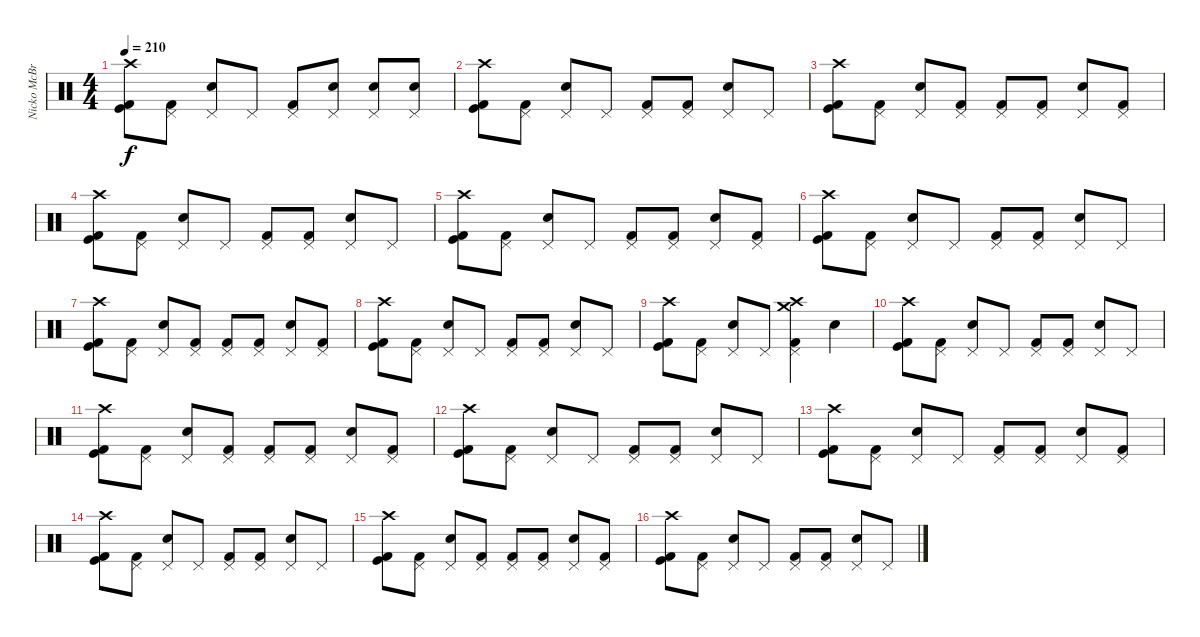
\track ("Nicko McBrain" "Nicko McBr") {instrument percussion}
\staff {score}
\articulation defaults
\ts (4 4)
\tempo 210
\clef neutral
\ks c
("Crash high (hit)" "Kick (hit)" "Kick (hit) 2").8{dy f} ("Pedal Hi-Hat (hit)" "Kick (hit) 2").8 ("Pedal Hi-Hat (hit)" "Snare (hit) 2").8 "Pedal Hi-Hat (hit)".8 ("Pedal Hi-Hat (hit)" "Kick (hit) 2").8 ("Pedal Hi-Hat (hit)" "Snare (hit) 2").8 ("Pedal Hi-Hat (hit)" "Snare (hit) 2").8 ("Pedal Hi-Hat (hit)" "Snare (hit) 2").8 |
("Crash high (hit)" "Kick (hit)" "Kick (hit) 2").8 ("Pedal Hi-Hat (hit)" "Kick (hit) 2").8 ("Pedal Hi-Hat (hit)" "Snare (hit) 2").8 "Pedal Hi-Hat (hit)".8 ("Pedal Hi-Hat (hit)" "Kick (hit) 2").8 ("Pedal Hi-Hat (hit)" "Kick (hit) 2").8 ("Pedal Hi-Hat (hit)" "Snare (hit) 2").8 "Pedal Hi-Hat (hit)".8 |
("Crash high (hit)" "Kick (hit)" "Kick (hit) 2").8 ("Pedal Hi-Hat (hit)" "Kick (hit) 2").8 ("Pedal Hi-Hat (hit)" "Snare (hit) 2").8 ("Pedal Hi-Hat (hit)" "Kick (hit) 2").8 ("Pedal Hi-Hat (hit)" "Kick (hit) 2").8 ("Pedal Hi-Hat (hit)" "Kick (hit) 2").8 ("Pedal Hi-Hat (hit)" "Snare (hit) 2").8 ("Pedal Hi-Hat (hit)" "Kick (hit) 2").8 |
("Crash high (hit)" "Kick (hit)" "Kick (hit) 2").8 ("Pedal Hi-Hat (hit)" "Kick (hit) 2").8 ("Pedal Hi-Hat (hit)" "Snare (hit) 2").8 "Pedal Hi-Hat (hit)".8 ("Pedal Hi-Hat (hit)" "Kick (hit) 2").8 ("Pedal Hi-Hat (hit)" "Kick (hit) 2").8 ("Pedal Hi-Hat (hit)" "Snare (hit) 2").8 "Pedal Hi-Hat (hit)".8 |
("Crash high (hit)" "Kick (hit)" "Kick (hit) 2").8 ("Pedal Hi-Hat (hit)" "Kick (hit) 2").8 ("Pedal Hi-Hat (hit)" "Snare (hit) 2").8 "Pedal Hi-Hat (hit)".8 ("Pedal Hi-Hat (hit)" "Kick (hit) 2").8 ("Pedal Hi-Hat (hit)" "Kick (hit) 2").8 ("Pedal Hi-Hat (hit)" "Snare (hit) 2").8 ("Pedal Hi-Hat (hit)" "Kick (hit) 2").8 |
("Crash high (hit)" "Kick (hit)" "Kick (hit) 2").8 ("Pedal Hi-Hat (hit)" "Kick (hit) 2").8 ("Pedal Hi-Hat (hit)" "Snare (hit) 2").8 "Pedal Hi-Hat (hit)".8 ("Pedal Hi-Hat (hit)" "Kick (hit) 2").8 ("Pedal Hi-Hat (hit)" "Kick (hit) 2").8 ("Pedal Hi-Hat (hit)" "Snare (hit) 2").8 "Pedal Hi-Hat (hit)".8 |
("Crash high (hit)" "Kick (hit)" "Kick (hit) 2").8 ("Pedal Hi-Hat (hit)" "Kick (hit) 2").8 ("Pedal Hi-Hat (hit)" "Snare (hit) 2").8 ("Pedal Hi-Hat (hit)" "Kick (hit) 2").8 ("Pedal Hi-Hat (hit)" "Kick (hit) 2").8 ("Pedal Hi-Hat (hit)" "Kick (hit) 2").8 ("Pedal Hi-Hat (hit)" "Snare (hit) 2").8 ("Pedal Hi-Hat (hit)" "Kick (hit) 2").8 |
("Crash high (hit)" "Kick (hit)" "Kick (hit) 2").8 ("Pedal Hi-Hat (hit)" "Kick (hit) 2").8 ("Pedal Hi-Hat (hit)" "Snare (hit) 2").8 "Pedal Hi-Hat (hit)".8 ("Pedal Hi-Hat (hit)" "Kick (hit) 2").8 ("Pedal Hi-Hat (hit)" "Kick (hit) 2").8 ("Pedal Hi-Hat (hit)" "Snare (hit) 2").8 "Pedal Hi-Hat (hit)".8 |
("Crash high (hit)" "Kick (hit)" "Kick (hit) 2").8 ("Pedal Hi-Hat (hit)" "Kick (hit) 2").8 ("Pedal Hi-Hat (hit)" "Snare (hit) 2").8 "Pedal Hi-Hat (hit)".8 ("Pedal Hi-Hat (hit)" "Crash medium (hit)" "Crash high (hit)" "Kick (hit) 2").4 "Snare (hit) 2".4 |
("Crash high (hit)" "Kick (hit)" "Kick (hit) 2").8 ("Pedal Hi-Hat (hit)" "Kick (hit) 2").8 ("Pedal Hi-Hat (hit)" "Snare (hit) 2").8 "Pedal Hi-Hat (hit)".8 ("Pedal Hi-Hat (hit)" "Kick (hit) 2").8 ("Pedal Hi-Hat (hit)" "Kick (hit) 2").8 ("Pedal Hi-Hat (hit)" "Snare (hit) 2").8 "Pedal Hi-Hat (hit)".8 |
("Crash high (hit)" "Kick (hit)" "Kick (hit) 2").8 ("Pedal Hi-Hat (hit)" "Kick (hit) 2").8 ("Pedal Hi-Hat (hit)" "Snare (hit) 2").8 ("Pedal Hi-Hat (hit)" "Kick (hit) 2").8 ("Pedal Hi-Hat (hit)" "Kick (hit) 2").8 ("Pedal Hi-Hat (hit)" "Kick (hit) 2").8 ("Pedal Hi-Hat (hit)" "Snare (hit) 2").8 ("Pedal Hi-Hat (hit)" "Kick (hit) 2").8 |
("Crash high (hit)" "Kick (hit)" "Kick (hit) 2").8 ("Pedal Hi-Hat (hit)" "Kick (hit) 2").8 ("Pedal Hi-Hat (hit)" "Snare (hit) 2").8 "Pedal Hi-Hat (hit)".8 ("Pedal Hi-Hat (hit)" "Kick (hit) 2").8 ("Pedal Hi-Hat (hit)" "Kick (hit) 2").8 ("Pedal Hi-Hat (hit)" "Snare (hit) 2").8 "Pedal Hi-Hat (hit)".8 |
("Crash high (hit)" "Kick (hit)" "Kick (hit) 2").8 ("Pedal Hi-Hat (hit)" "Kick (hit) 2").8 ("Pedal Hi-Hat (hit)" "Snare (hit) 2").8 "Pedal Hi-Hat (hit)".8 ("Pedal Hi-Hat (hit)" "Kick (hit) 2").8 ("Pedal Hi-Hat (hit)" "Kick (hit) 2").8 ("Pedal Hi-Hat (hit)" "Snare (hit) 2").8 ("Pedal Hi-Hat (hit)" "Kick (hit) 2").8 |
("Crash high (hit)" "Kick (hit)" "Kick (hit) 2").8 ("Pedal Hi-Hat (hit)" "Kick (hit) 2").8 ("Pedal Hi-Hat (hit)" "Snare (hit) 2").8 "Pedal Hi-Hat (hit)".8 ("Pedal Hi-Hat (hit)" "Kick (hit) 2").8 ("Pedal Hi-Hat (hit)" "Kick (hit) 2").8 ("Pedal Hi-Hat (hit)" "Snare (hit) 2").8 "Pedal Hi-Hat (hit)".8 |
("Crash high (hit)" "Kick (hit)" "Kick (hit) 2").8 ("Pedal Hi-Hat (hit)" "Kick (hit) 2").8 ("Pedal Hi-Hat (hit)" "Snare (hit) 2").8 ("Pedal Hi-Hat (hit)" "Kick (hit) 2").8 ("Pedal Hi-Hat (hit)" "Kick (hit) 2").8 ("Pedal Hi-Hat (hit)" "Kick (hit) 2").8 ("Pedal Hi-Hat (hit)" "Snare (hit) 2").8 ("Pedal Hi-Hat (hit)" "Kick (hit) 2").8 |
("Crash high (hit)" "Kick (hit)" "Kick (hit) 2").8 ("Pedal Hi-Hat (hit)" "Kick (hit) 2").8 ("Pedal Hi-Hat (hit)" "Snare (hit) 2").8 "Pedal Hi-Hat (hit)".8 ("Pedal Hi-Hat (hit)" "Kick (hit) 2").8 ("Pedal Hi-Hat (hit)" "Kick (hit) 2").8 ("Pedal Hi-Hat (hit)" "Snare (hit) 2").8 "Pedal Hi-Hat (hit)".8
